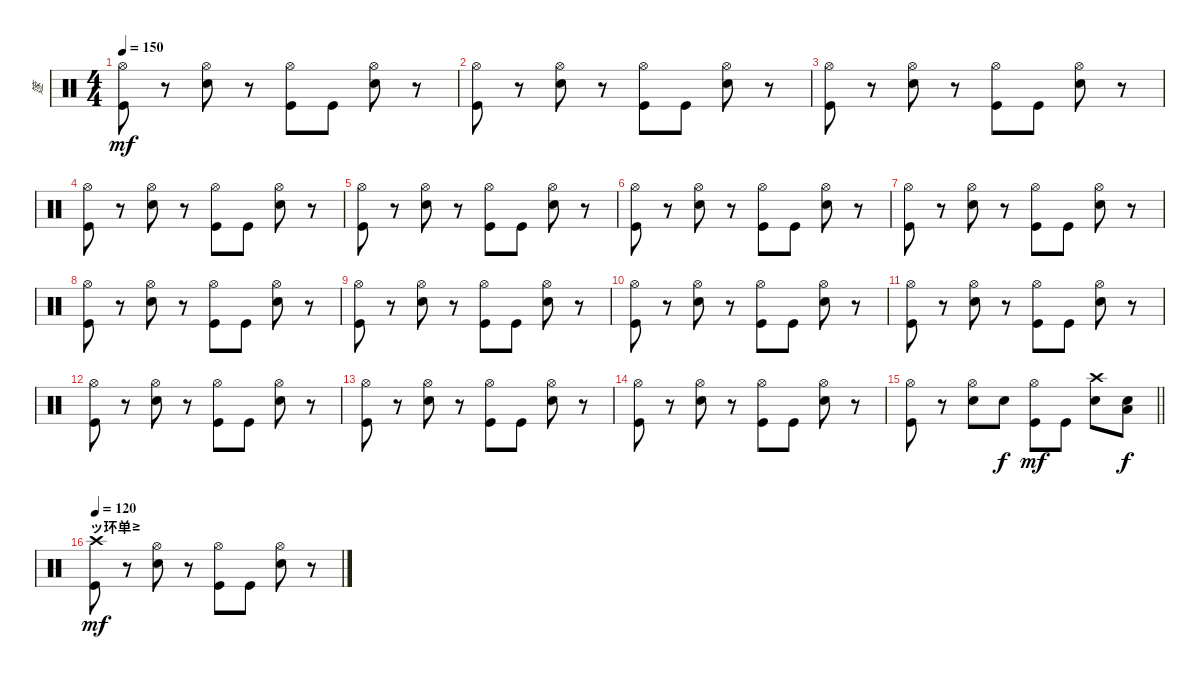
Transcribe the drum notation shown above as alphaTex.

\track ("篴" "篴") {instrument percussion}
\staff {score}
\articulation defaults
\ts (4 4)
\tempo 150
\clef neutral
\ks c
("Hi-Hat (open)" "Kick (hit)").8{dy mf} r.8 ("Hi-Hat (open)" "Snare (hit) 2").8 r.8 ("Hi-Hat (open)" "Kick (hit)").8 "Kick (hit)".8 ("Hi-Hat (open)" "Snare (hit) 2").8 r.8 |
("Hi-Hat (open)" "Kick (hit)").8 r.8 ("Hi-Hat (open)" "Snare (hit) 2").8 r.8 ("Hi-Hat (open)" "Kick (hit)").8 "Kick (hit)".8 ("Hi-Hat (open)" "Snare (hit) 2").8 r.8 |
("Hi-Hat (open)" "Kick (hit)").8 r.8 ("Hi-Hat (open)" "Snare (hit) 2").8 r.8 ("Hi-Hat (open)" "Kick (hit)").8 "Kick (hit)".8 ("Hi-Hat (open)" "Snare (hit) 2").8 r.8 |
("Hi-Hat (open)" "Kick (hit)").8 r.8 ("Hi-Hat (open)" "Snare (hit) 2").8 r.8 ("Hi-Hat (open)" "Kick (hit)").8 "Kick (hit)".8 ("Hi-Hat (open)" "Snare (hit) 2").8 r.8 |
("Hi-Hat (open)" "Kick (hit)").8 r.8 ("Hi-Hat (open)" "Snare (hit) 2").8 r.8 ("Hi-Hat (open)" "Kick (hit)").8 "Kick (hit)".8 ("Hi-Hat (open)" "Snare (hit) 2").8 r.8 |
("Hi-Hat (open)" "Kick (hit)").8 r.8 ("Hi-Hat (open)" "Snare (hit) 2").8 r.8 ("Hi-Hat (open)" "Kick (hit)").8 "Kick (hit)".8 ("Hi-Hat (open)" "Snare (hit) 2").8 r.8 |
("Hi-Hat (open)" "Kick (hit)").8 r.8 ("Hi-Hat (open)" "Snare (hit) 2").8 r.8 ("Hi-Hat (open)" "Kick (hit)").8 "Kick (hit)".8 ("Hi-Hat (open)" "Snare (hit) 2").8 r.8 |
("Hi-Hat (open)" "Kick (hit)").8 r.8 ("Hi-Hat (open)" "Snare (hit) 2").8 r.8 ("Hi-Hat (open)" "Kick (hit)").8 "Kick (hit)".8 ("Hi-Hat (open)" "Snare (hit) 2").8 r.8 |
("Hi-Hat (open)" "Kick (hit)").8 r.8 ("Hi-Hat (open)" "Snare (hit) 2").8 r.8 ("Hi-Hat (open)" "Kick (hit)").8 "Kick (hit)".8 ("Hi-Hat (open)" "Snare (hit) 2").8 r.8 |
("Hi-Hat (open)" "Kick (hit)").8 r.8 ("Hi-Hat (open)" "Snare (hit) 2").8 r.8 ("Hi-Hat (open)" "Kick (hit)").8 "Kick (hit)".8 ("Hi-Hat (open)" "Snare (hit) 2").8 r.8 |
("Hi-Hat (open)" "Kick (hit)").8 r.8 ("Hi-Hat (open)" "Snare (hit) 2").8 r.8 ("Hi-Hat (open)" "Kick (hit)").8 "Kick (hit)".8 ("Hi-Hat (open)" "Snare (hit) 2").8 r.8 |
("Hi-Hat (open)" "Kick (hit)").8 r.8 ("Hi-Hat (open)" "Snare (hit) 2").8 r.8 ("Hi-Hat (open)" "Kick (hit)").8 "Kick (hit)".8 ("Hi-Hat (open)" "Snare (hit) 2").8 r.8 |
("Hi-Hat (open)" "Kick (hit)").8 r.8 ("Hi-Hat (open)" "Snare (hit) 2").8 r.8 ("Hi-Hat (open)" "Kick (hit)").8 "Kick (hit)".8 ("Hi-Hat (open)" "Snare (hit) 2").8 r.8 |
("Hi-Hat (open)" "Kick (hit)").8 r.8 ("Hi-Hat (open)" "Snare (hit) 2").8 r.8 ("Hi-Hat (open)" "Kick (hit)").8 "Kick (hit)".8 ("Hi-Hat (open)" "Snare (hit) 2").8 r.8 |
\barLineRight lightlight
("Hi-Hat (open)" "Kick (hit)").8 r.8 ("Hi-Hat (open)" "Snare (hit) 2").8 "Snare (hit) 2".8{dy f} ("Hi-Hat (open)" "Kick (hit)").8{dy mf} "Kick (hit)".8 ("Crash high (hit)" "Snare (hit) 2").8 ("Snare (hit) 2" "Low Tom (hit)").8{dy f} |
\section ("" "ッ环单")
\tempo 120
("Crash high (hit)" "Kick (hit)").8{dy mf} r.8 ("Hi-Hat (open)" "Snare (hit) 2").8 r.8 ("Hi-Hat (open)" "Kick (hit)").8 "Kick (hit)".8 ("Hi-Hat (open)" "Snare (hit) 2").8 r.8
